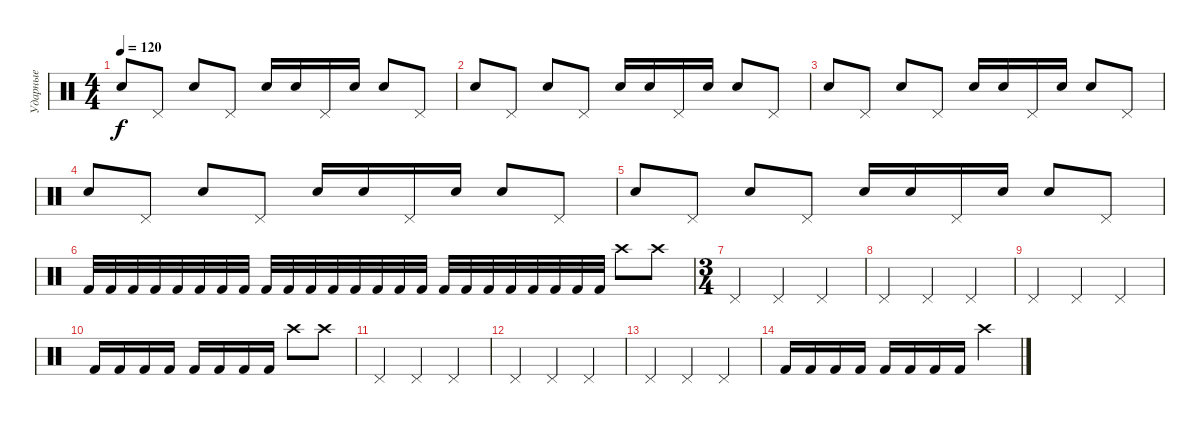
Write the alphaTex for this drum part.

\track ("Ударные" "Ударные") {instrument percussion}
\staff {score}
\articulation defaults
\ts (4 4)
\tempo 120
\clef neutral
\ks c "Snare (hit) 2".8{dy f} "Pedal Hi-Hat (hit)".8 "Snare (hit) 2".8 "Pedal Hi-Hat (hit)".8 "Snare (hit) 2".16 "Snare (hit) 2".16 "Pedal Hi-Hat (hit)".16 "Snare (hit) 2".16 "Snare (hit) 2".8 "Pedal Hi-Hat (hit)".8
|
"Snare (hit) 2".8 "Pedal Hi-Hat (hit)".8 "Snare (hit) 2".8 "Pedal Hi-Hat (hit)".8 "Snare (hit) 2".16 "Snare (hit) 2".16 "Pedal Hi-Hat (hit)".16 "Snare (hit) 2".16 "Snare (hit) 2".8 "Pedal Hi-Hat (hit)".8 |
"Snare (hit) 2".8 "Pedal Hi-Hat (hit)".8 "Snare (hit) 2".8 "Pedal Hi-Hat (hit)".8 "Snare (hit) 2".16 "Snare (hit) 2".16 "Pedal Hi-Hat (hit)".16 "Snare (hit) 2".16 "Snare (hit) 2".8 "Pedal Hi-Hat (hit)".8 |
"Snare (hit) 2".8 "Pedal Hi-Hat (hit)".8 "Snare (hit) 2".8 "Pedal Hi-Hat (hit)".8 "Snare (hit) 2".16 "Snare (hit) 2".16 "Pedal Hi-Hat (hit)".16 "Snare (hit) 2".16 "Snare (hit) 2".8 "Pedal Hi-Hat (hit)".8 |
"Snare (hit) 2".8 "Pedal Hi-Hat (hit)".8 "Snare (hit) 2".8 "Pedal Hi-Hat (hit)".8 "Snare (hit) 2".16 "Snare (hit) 2".16 "Pedal Hi-Hat (hit)".16 "Snare (hit) 2".16 "Snare (hit) 2".8 "Pedal Hi-Hat (hit)".8 |
"Kick (hit) 2".32 "Kick (hit) 2".32 "Kick (hit) 2".32 "Kick (hit) 2".32 "Kick (hit) 2".32 "Kick (hit) 2".32 "Kick (hit) 2".32 "Kick (hit) 2".32 "Kick (hit) 2".32 "Kick (hit) 2".32 "Kick (hit) 2".32 "Kick (hit) 2".32 "Kick (hit) 2".32 "Kick (hit) 2".32 "Kick (hit) 2".32 "Kick (hit) 2".32 "Kick (hit) 2".32 "Kick (hit) 2".32 "Kick (hit) 2".32 "Kick (hit) 2".32 "Kick (hit) 2".32 "Kick (hit) 2".32 "Kick (hit) 2".32 "Kick (hit) 2".32 "Crash high (hit)".8 "Crash high (hit)".8 |
\ts (3 4)
"Pedal Hi-Hat (hit)".4 "Pedal Hi-Hat (hit)".4 "Pedal Hi-Hat (hit)".4 |
"Pedal Hi-Hat (hit)".4 "Pedal Hi-Hat (hit)".4 "Pedal Hi-Hat (hit)".4 |
"Pedal Hi-Hat (hit)".4 "Pedal Hi-Hat (hit)".4 "Pedal Hi-Hat (hit)".4 |
"Kick (hit) 2".16 "Kick (hit) 2".16 "Kick (hit) 2".16 "Kick (hit) 2".16 "Kick (hit) 2".16 "Kick (hit) 2".16 "Kick (hit) 2".16 "Kick (hit) 2".16 "Crash high (hit)".8 "Crash high (hit)".8 |
"Pedal Hi-Hat (hit)".4 "Pedal Hi-Hat (hit)".4 "Pedal Hi-Hat (hit)".4 |
"Pedal Hi-Hat (hit)".4 "Pedal Hi-Hat (hit)".4 "Pedal Hi-Hat (hit)".4 |
"Pedal Hi-Hat (hit)".4 "Pedal Hi-Hat (hit)".4 "Pedal Hi-Hat (hit)".4 |
"Kick (hit) 2".16 "Kick (hit) 2".16 "Kick (hit) 2".16 "Kick (hit) 2".16 "Kick (hit) 2".16 "Kick (hit) 2".16 "Kick (hit) 2".16 "Kick (hit) 2".16 "Crash high (hit)".4
